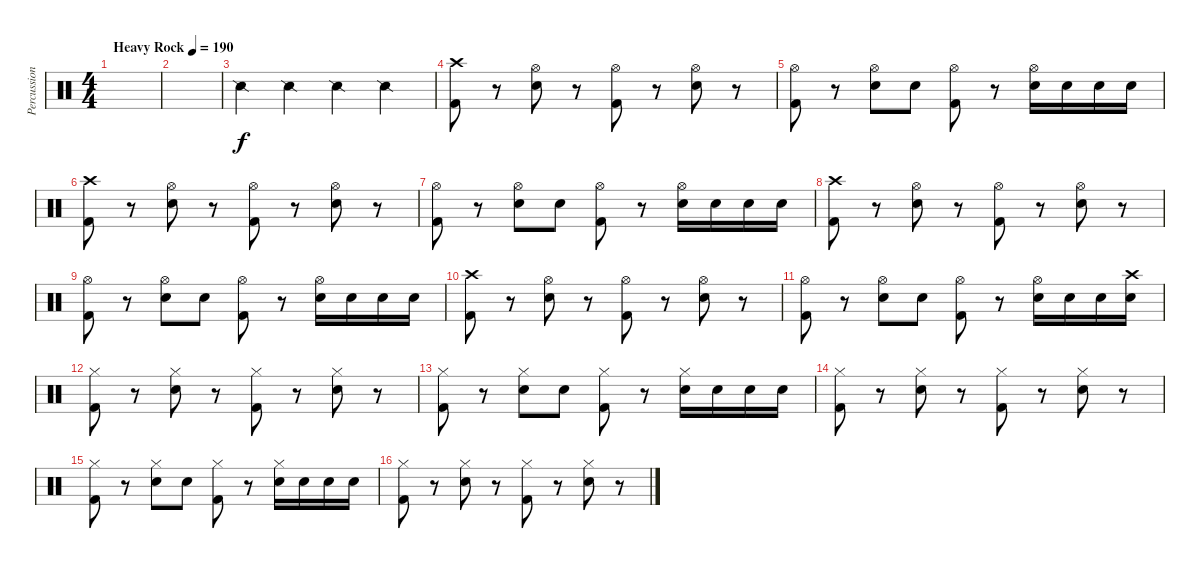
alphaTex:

\track ("Percussioni" "Percussion") {instrument percussion}
\staff {score}
\articulation defaults
\ts (4 4)
\tempo (190 "Heavy Rock")
\clef neutral
\ks c
|
|
"Snare (side stick) 2".4 "Snare (side stick) 2".4 "Snare (side stick) 2".4 "Snare (side stick) 2".4 |
("Kick (hit) 2" "Crash high (hit)").8 r.8 ("Electric Snare (hit)" "Hi-Hat (open)").8 r.8 ("Kick (hit) 2" "Hi-Hat (open)").8 r.8 ("Electric Snare (hit)" "Hi-Hat (open)").8 r.8 |
("Kick (hit) 2" "Hi-Hat (open)").8 r.8 ("Electric Snare (hit)" "Hi-Hat (open)").8 "Electric Snare (hit)".8 ("Kick (hit) 2" "Hi-Hat (open)").8 r.8 ("Electric Snare (hit)" "Hi-Hat (open)").16 "Electric Snare (hit)".16 "Electric Snare (hit)".16 "Electric Snare (hit)".16 |
("Kick (hit) 2" "Crash high (hit)").8 r.8 ("Electric Snare (hit)" "Hi-Hat (open)").8 r.8 ("Kick (hit) 2" "Hi-Hat (open)").8 r.8 ("Electric Snare (hit)" "Hi-Hat (open)").8 r.8 |
("Kick (hit) 2" "Hi-Hat (open)").8 r.8 ("Electric Snare (hit)" "Hi-Hat (open)").8 "Electric Snare (hit)".8 ("Kick (hit) 2" "Hi-Hat (open)").8 r.8 ("Electric Snare (hit)" "Hi-Hat (open)").16 "Electric Snare (hit)".16 "Electric Snare (hit)".16 "Electric Snare (hit)".16 |
("Kick (hit) 2" "Crash high (hit)").8 r.8 ("Electric Snare (hit)" "Hi-Hat (open)").8 r.8 ("Kick (hit) 2" "Hi-Hat (open)").8 r.8 ("Electric Snare (hit)" "Hi-Hat (open)").8 r.8 |
("Kick (hit) 2" "Hi-Hat (open)").8 r.8 ("Electric Snare (hit)" "Hi-Hat (open)").8 "Electric Snare (hit)".8 ("Kick (hit) 2" "Hi-Hat (open)").8 r.8 ("Electric Snare (hit)" "Hi-Hat (open)").16 "Electric Snare (hit)".16 "Electric Snare (hit)".16 "Electric Snare (hit)".16 |
("Kick (hit) 2" "Crash high (hit)").8 r.8 ("Electric Snare (hit)" "Hi-Hat (open)").8 r.8 ("Kick (hit) 2" "Hi-Hat (open)").8 r.8 ("Electric Snare (hit)" "Hi-Hat (open)").8 r.8 |
("Kick (hit) 2" "Hi-Hat (open)").8 r.8 ("Electric Snare (hit)" "Hi-Hat (open)").8 "Electric Snare (hit)".8 ("Kick (hit) 2" "Hi-Hat (open)").8 r.8 ("Electric Snare (hit)" "Hi-Hat (open)").16 "Electric Snare (hit)".16 "Electric Snare (hit)".16 ("Electric Snare (hit)" "Crash high (hit)").16 |
("Kick (hit) 2" "Hi-Hat (closed)").8 r.8 ("Electric Snare (hit)" "Hi-Hat (closed)").8 r.8 ("Kick (hit) 2" "Hi-Hat (closed)").8 r.8 ("Electric Snare (hit)" "Hi-Hat (closed)").8 r.8 |
("Kick (hit) 2" "Hi-Hat (closed)").8 r.8 ("Electric Snare (hit)" "Hi-Hat (closed)").8 "Electric Snare (hit)".8 ("Kick (hit) 2" "Hi-Hat (closed)").8 r.8 ("Electric Snare (hit)" "Hi-Hat (closed)").16 "Electric Snare (hit)".16 "Electric Snare (hit)".16 "Electric Snare (hit)".16 |
("Kick (hit) 2" "Hi-Hat (closed)").8 r.8 ("Electric Snare (hit)" "Hi-Hat (closed)").8 r.8 ("Kick (hit) 2" "Hi-Hat (closed)").8 r.8 ("Electric Snare (hit)" "Hi-Hat (closed)").8 r.8 |
("Kick (hit) 2" "Hi-Hat (closed)").8 r.8 ("Electric Snare (hit)" "Hi-Hat (closed)").8 "Electric Snare (hit)".8 ("Kick (hit) 2" "Hi-Hat (closed)").8 r.8 ("Electric Snare (hit)" "Hi-Hat (closed)").16 "Electric Snare (hit)".16 "Electric Snare (hit)".16 "Electric Snare (hit)".16 |
("Kick (hit) 2" "Hi-Hat (closed)").8 r.8 ("Electric Snare (hit)" "Hi-Hat (closed)").8 r.8 ("Kick (hit) 2" "Hi-Hat (closed)").8 r.8 ("Electric Snare (hit)" "Hi-Hat (closed)").8 r.8
